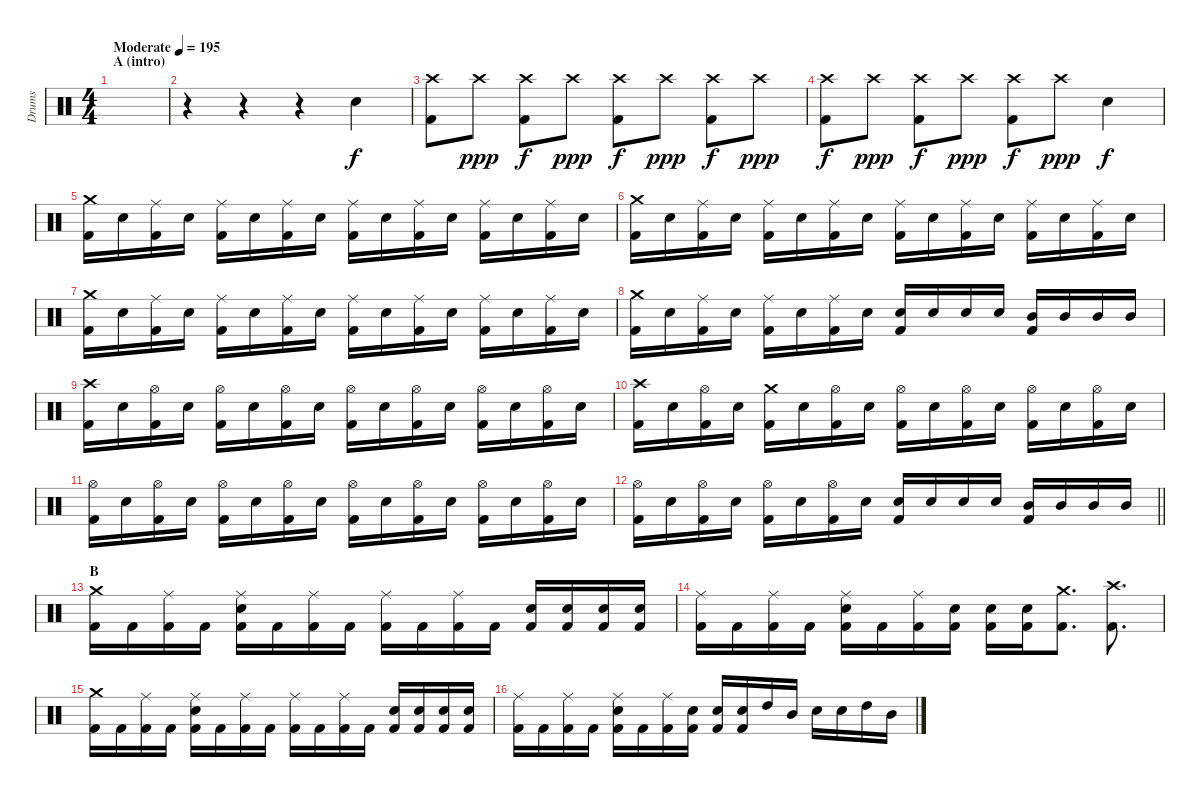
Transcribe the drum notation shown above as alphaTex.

\track ("Drums" "Drums") {instrument percussion}
\staff {score}
\articulation defaults
\ts (4 4)
\section ("" "A (intro)")
\tempo (195 "Moderate")
\clef neutral
\ks c
|
r.4 r.4 r.4 "Snare (hit) 2".4 |
("Crash high (hit)" "Kick (hit) 2").8 "Crash high (hit)".8{dy ppp} ("Crash high (hit)" "Kick (hit) 2").8{dy f} "Crash high (hit)".8{dy ppp} ("Crash high (hit)" "Kick (hit) 2").8{dy f} "Crash high (hit)".8{dy ppp} ("Crash high (hit)" "Kick (hit) 2").8{dy f} "Crash high (hit)".8{dy ppp} |
("Crash high (hit)" "Kick (hit) 2").8{dy f} "Crash high (hit)".8{dy ppp} ("Crash high (hit)" "Kick (hit) 2").8{dy f} "Crash high (hit)".8{dy ppp} ("Crash high (hit)" "Kick (hit) 2").8{dy f} "Crash high (hit)".8{dy ppp} "Snare (hit) 2".4{dy f} |
("Crash medium (hit)" "Kick (hit) 2").16 "Snare (hit) 2".16 ("Ride (middle)" "Kick (hit) 2").16 "Snare (hit) 2".16 ("Ride (middle)" "Kick (hit) 2").16 "Snare (hit) 2".16 ("Ride (middle)" "Kick (hit) 2").16 "Snare (hit) 2".16 ("Ride (middle)" "Kick (hit) 2").16 "Snare (hit) 2".16 ("Ride (middle)" "Kick (hit) 2").16 "Snare (hit) 2".16 ("Ride (middle)" "Kick (hit) 2").16 "Snare (hit) 2".16 ("Ride (middle)" "Kick (hit) 2").16 "Snare (hit) 2".16 |
("Crash medium (hit)" "Kick (hit) 2").16 "Snare (hit) 2".16 ("Ride (middle)" "Kick (hit) 2").16 "Snare (hit) 2".16 ("Ride (middle)" "Kick (hit) 2").16 "Snare (hit) 2".16 ("Ride (middle)" "Kick (hit) 2").16 "Snare (hit) 2".16 ("Ride (middle)" "Kick (hit) 2").16 "Snare (hit) 2".16 ("Ride (middle)" "Kick (hit) 2").16 "Snare (hit) 2".16 ("Ride (middle)" "Kick (hit) 2").16 "Snare (hit) 2".16 ("Ride (middle)" "Kick (hit) 2").16 "Snare (hit) 2".16 |
("Crash medium (hit)" "Kick (hit) 2").16 "Snare (hit) 2".16 ("Ride (middle)" "Kick (hit) 2").16 "Snare (hit) 2".16 ("Ride (middle)" "Kick (hit) 2").16 "Snare (hit) 2".16 ("Ride (middle)" "Kick (hit) 2").16 "Snare (hit) 2".16 ("Ride (middle)" "Kick (hit) 2").16 "Snare (hit) 2".16 ("Ride (middle)" "Kick (hit) 2").16 "Snare (hit) 2".16 ("Ride (middle)" "Kick (hit) 2").16 "Snare (hit) 2".16 ("Ride (middle)" "Kick (hit) 2").16 "Snare (hit) 2".16 |
("Crash medium (hit)" "Kick (hit) 2").16 "Snare (hit) 2".16 ("Ride (middle)" "Kick (hit) 2").16 "Snare (hit) 2".16 ("Ride (middle)" "Kick (hit) 2").16 "Snare (hit) 2".16 ("Ride (middle)" "Kick (hit) 2").16 "Snare (hit) 2".16 ("Snare (hit) 2" "Kick (hit) 2").16 "Snare (hit) 2".16 "Snare (hit) 2".16 "Snare (hit) 2".16 ("Mid Tom (hit)" "Kick (hit) 2").16 "Mid Tom (hit)".16 "Mid Tom (hit)".16 "Mid Tom (hit)".16 |
("Crash high (hit)" "Kick (hit) 2").16 "Snare (hit) 2".16 ("Hi-Hat (open)" "Kick (hit) 2").16 "Snare (hit) 2".16 ("Hi-Hat (open)" "Kick (hit) 2").16 "Snare (hit) 2".16 ("Hi-Hat (open)" "Kick (hit) 2").16 "Snare (hit) 2".16 ("Hi-Hat (open)" "Kick (hit) 2").16 "Snare (hit) 2".16 ("Hi-Hat (open)" "Kick (hit) 2").16 "Snare (hit) 2".16 ("Hi-Hat (open)" "Kick (hit) 2").16 "Snare (hit) 2".16 ("Hi-Hat (open)" "Kick (hit) 2").16 "Snare (hit) 2".16 |
("Crash high (hit)" "Kick (hit) 2").16 "Snare (hit) 2".16 ("Hi-Hat (open)" "Kick (hit) 2").16 "Snare (hit) 2".16 ("Crash medium (hit)" "Kick (hit) 2").16 "Snare (hit) 2".16 ("Hi-Hat (open)" "Kick (hit) 2").16 "Snare (hit) 2".16 ("Hi-Hat (open)" "Kick (hit) 2").16 "Snare (hit) 2".16 ("Hi-Hat (open)" "Kick (hit) 2").16 "Snare (hit) 2".16 ("Hi-Hat (open)" "Kick (hit) 2").16 "Snare (hit) 2".16 ("Hi-Hat (open)" "Kick (hit) 2").16 "Snare (hit) 2".16 |
("Hi-Hat (open)" "Kick (hit) 2").16 "Snare (hit) 2".16 ("Hi-Hat (open)" "Kick (hit) 2").16 "Snare (hit) 2".16 ("Hi-Hat (open)" "Kick (hit) 2").16 "Snare (hit) 2".16 ("Hi-Hat (open)" "Kick (hit) 2").16 "Snare (hit) 2".16 ("Hi-Hat (open)" "Kick (hit) 2").16 "Snare (hit) 2".16 ("Hi-Hat (open)" "Kick (hit) 2").16 "Snare (hit) 2".16 ("Hi-Hat (open)" "Kick (hit) 2").16 "Snare (hit) 2".16 ("Hi-Hat (open)" "Kick (hit) 2").16 "Snare (hit) 2".16 |
\barLineRight lightlight
("Hi-Hat (open)" "Kick (hit) 2").16 "Snare (hit) 2".16 ("Hi-Hat (open)" "Kick (hit) 2").16 "Snare (hit) 2".16 ("Hi-Hat (open)" "Kick (hit) 2").16 "Snare (hit) 2".16 ("Hi-Hat (open)" "Kick (hit) 2").16 "Snare (hit) 2".16 ("Snare (hit) 2" "Kick (hit) 2").16 "Snare (hit) 2".16 "Snare (hit) 2".16 "Snare (hit) 2".16 ("Mid Tom (hit)" "Kick (hit) 2").16 "Mid Tom (hit)".16 "Mid Tom (hit)".16 "Mid Tom (hit)".16 |
\section ("" "B")
("Crash medium (hit)" "Kick (hit) 2").16 "Kick (hit) 2".16 ("Ride (middle)" "Kick (hit) 2").16 "Kick (hit) 2".16 ("Ride (middle)" "Snare (hit) 2" "Kick (hit) 2").16 "Kick (hit) 2".16 ("Ride (middle)" "Kick (hit) 2").16 "Kick (hit) 2".16 ("Ride (middle)" "Kick (hit) 2").16 "Kick (hit) 2".16 ("Ride (middle)" "Kick (hit) 2").16 "Kick (hit) 2".16 ("Snare (hit) 2" "Kick (hit) 2").16 ("Snare (hit) 2" "Kick (hit) 2").16 ("Snare (hit) 2" "Kick (hit) 2").16 ("Snare (hit) 2" "Kick (hit) 2").16 |
("Ride (middle)" "Kick (hit) 2").16 "Kick (hit) 2".16 ("Ride (middle)" "Kick (hit) 2").16 "Kick (hit) 2".16 ("Ride (middle)" "Snare (hit) 2" "Kick (hit) 2").16 "Kick (hit) 2".16 ("Ride (middle)" "Kick (hit) 2").16 ("Snare (hit) 2" "Kick (hit) 2").16 ("Snare (hit) 2" "Kick (hit) 2").16 ("Snare (hit) 2" "Kick (hit) 2").16 ("Crash medium (hit)" "Kick (hit) 2").8{d} ("Crash high (hit)" "Kick (hit) 2").8{d} |
("Crash medium (hit)" "Kick (hit) 2").16 "Kick (hit) 2".16 ("Ride (middle)" "Kick (hit) 2").16 "Kick (hit) 2".16 ("Ride (middle)" "Snare (hit) 2" "Kick (hit) 2").16 "Kick (hit) 2".16 ("Ride (middle)" "Kick (hit) 2").16 "Kick (hit) 2".16 ("Ride (middle)" "Kick (hit) 2").16 "Kick (hit) 2".16 ("Ride (middle)" "Kick (hit) 2").16 "Kick (hit) 2".16 ("Snare (hit) 2" "Kick (hit) 2").16 ("Snare (hit) 2" "Kick (hit) 2").16 ("Snare (hit) 2" "Kick (hit) 2").16 ("Snare (hit) 2" "Kick (hit) 2").16 |
("Ride (middle)" "Kick (hit) 2").16 "Kick (hit) 2".16 ("Ride (middle)" "Kick (hit) 2").16 "Kick (hit) 2".16 ("Ride (middle)" "Snare (hit) 2" "Kick (hit) 2").16 "Kick (hit) 2".16 ("Ride (middle)" "Kick (hit) 2").16 ("Snare (hit) 2" "Kick (hit) 2").16 ("Snare (hit) 2" "Kick (hit) 2").16 ("Snare (hit) 2" "Kick (hit) 2").16 "High Tom (hit)".16 "Mid Tom (hit)".16 "Snare (hit) 2".16 "Snare (hit) 2".16 "High Tom (hit)".16 "Mid Tom (hit)".16
